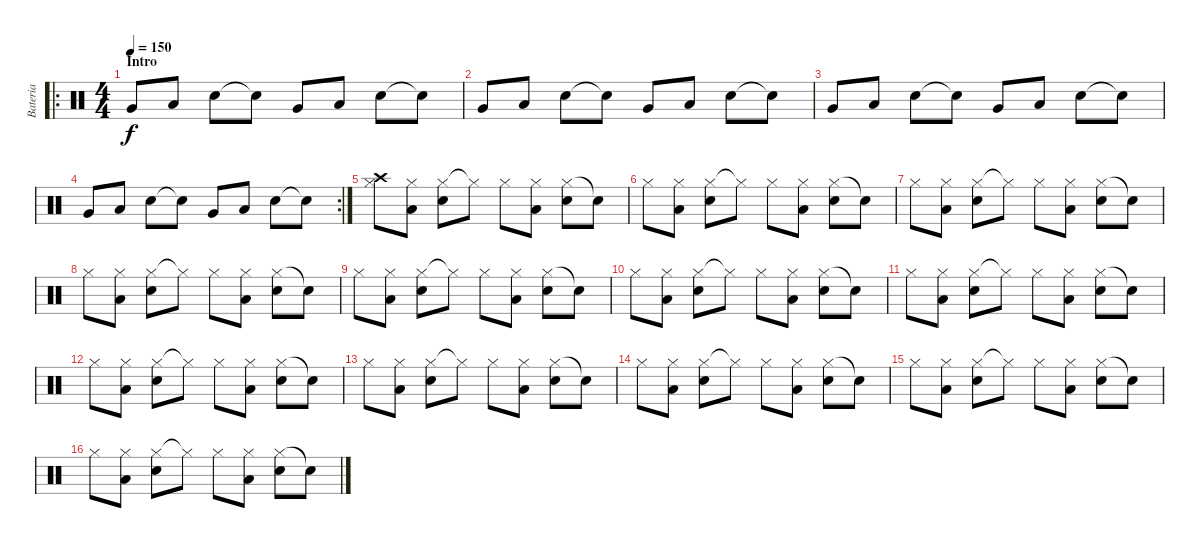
\track ("Bateria" "Bateria") {instrument percussion}
\staff {score}
\articulation defaults
\ro
\ts (4 4)
\section ("" "Intro")
\tempo 150
\clef neutral
\ks c "Very Low Tom (hit)".8{dy f} "Low Floor Tom (hit)".8 "Snare (hit) 2".8 "Snare (hit)"{t}.8 "Very Low Tom (hit)".8 "Low Floor Tom (hit)".8 "Snare (hit) 2".8 "Snare (hit)"{t}.8
|
"Very Low Tom (hit)".8 "Low Floor Tom (hit)".8 "Snare (hit) 2".8 "Snare (hit)"{t}.8 "Very Low Tom (hit)".8 "Low Floor Tom (hit)".8 "Snare (hit) 2".8 "Snare (hit)"{t}.8 |
"Very Low Tom (hit)".8 "Low Floor Tom (hit)".8 "Snare (hit) 2".8 "Snare (hit)"{t}.8 "Very Low Tom (hit)".8 "Low Floor Tom (hit)".8 "Snare (hit) 2".8 "Snare (hit)"{t}.8 |
\rc 2 "Very Low Tom (hit)".8 "Low Floor Tom (hit)".8 "Snare (hit) 2".8 "Snare (hit)"{t}.8 "Very Low Tom (hit)".8 "Low Floor Tom (hit)".8 "Snare (hit) 2".8 "Snare (hit)"{t}.8
|
("Hi-Hat (closed)" "Crash high (hit)").8 ("Low Floor Tom (hit)" "Hi-Hat (closed)").8 ("Hi-Hat (closed)" "Snare (hit) 2").8 "Hi-Hat (closed)"{t}.8 "Hi-Hat (closed)".8 ("Low Floor Tom (hit)" "Hi-Hat (closed)").8 ("Hi-Hat (closed)" "Snare (hit) 2").8 "Snare (hit)"{t}.8 |
"Hi-Hat (closed)".8 ("Low Floor Tom (hit)" "Hi-Hat (closed)").8 ("Hi-Hat (closed)" "Snare (hit) 2").8 "Hi-Hat (closed)"{t}.8 "Hi-Hat (closed)".8 ("Low Floor Tom (hit)" "Hi-Hat (closed)").8 ("Hi-Hat (closed)" "Snare (hit) 2").8 "Snare (hit)"{t}.8 |
"Hi-Hat (closed)".8 ("Low Floor Tom (hit)" "Hi-Hat (closed)").8 ("Hi-Hat (closed)" "Snare (hit) 2").8 "Hi-Hat (closed)"{t}.8 "Hi-Hat (closed)".8 ("Low Floor Tom (hit)" "Hi-Hat (closed)").8 ("Hi-Hat (closed)" "Snare (hit) 2").8 "Snare (hit)"{t}.8 |
"Hi-Hat (closed)".8 ("Low Floor Tom (hit)" "Hi-Hat (closed)").8 ("Hi-Hat (closed)" "Snare (hit) 2").8 "Hi-Hat (closed)"{t}.8 "Hi-Hat (closed)".8 ("Low Floor Tom (hit)" "Hi-Hat (closed)").8 ("Hi-Hat (closed)" "Snare (hit) 2").8 "Snare (hit)"{t}.8 |
"Hi-Hat (closed)".8 ("Low Floor Tom (hit)" "Hi-Hat (closed)").8 ("Hi-Hat (closed)" "Snare (hit) 2").8 "Hi-Hat (closed)"{t}.8 "Hi-Hat (closed)".8 ("Low Floor Tom (hit)" "Hi-Hat (closed)").8 ("Hi-Hat (closed)" "Snare (hit) 2").8 "Snare (hit)"{t}.8 |
"Hi-Hat (closed)".8 ("Low Floor Tom (hit)" "Hi-Hat (closed)").8 ("Hi-Hat (closed)" "Snare (hit) 2").8 "Hi-Hat (closed)"{t}.8 "Hi-Hat (closed)".8 ("Low Floor Tom (hit)" "Hi-Hat (closed)").8 ("Hi-Hat (closed)" "Snare (hit) 2").8 "Snare (hit)"{t}.8 |
"Hi-Hat (closed)".8 ("Low Floor Tom (hit)" "Hi-Hat (closed)").8 ("Hi-Hat (closed)" "Snare (hit) 2").8 "Hi-Hat (closed)"{t}.8 "Hi-Hat (closed)".8 ("Low Floor Tom (hit)" "Hi-Hat (closed)").8 ("Hi-Hat (closed)" "Snare (hit) 2").8 "Snare (hit)"{t}.8 |
"Hi-Hat (closed)".8 ("Low Floor Tom (hit)" "Hi-Hat (closed)").8 ("Hi-Hat (closed)" "Snare (hit) 2").8 "Hi-Hat (closed)"{t}.8 "Hi-Hat (closed)".8 ("Low Floor Tom (hit)" "Hi-Hat (closed)").8 ("Hi-Hat (closed)" "Snare (hit) 2").8 "Snare (hit)"{t}.8 |
"Hi-Hat (closed)".8 ("Low Floor Tom (hit)" "Hi-Hat (closed)").8 ("Hi-Hat (closed)" "Snare (hit) 2").8 "Hi-Hat (closed)"{t}.8 "Hi-Hat (closed)".8 ("Low Floor Tom (hit)" "Hi-Hat (closed)").8 ("Hi-Hat (closed)" "Snare (hit) 2").8 "Snare (hit)"{t}.8 |
"Hi-Hat (closed)".8 ("Low Floor Tom (hit)" "Hi-Hat (closed)").8 ("Hi-Hat (closed)" "Snare (hit) 2").8 "Hi-Hat (closed)"{t}.8 "Hi-Hat (closed)".8 ("Low Floor Tom (hit)" "Hi-Hat (closed)").8 ("Hi-Hat (closed)" "Snare (hit) 2").8 "Snare (hit)"{t}.8 |
"Hi-Hat (closed)".8 ("Low Floor Tom (hit)" "Hi-Hat (closed)").8 ("Hi-Hat (closed)" "Snare (hit) 2").8 "Hi-Hat (closed)"{t}.8 "Hi-Hat (closed)".8 ("Low Floor Tom (hit)" "Hi-Hat (closed)").8 ("Hi-Hat (closed)" "Snare (hit) 2").8 "Snare (hit)"{t}.8 |
"Hi-Hat (closed)".8 ("Low Floor Tom (hit)" "Hi-Hat (closed)").8 ("Hi-Hat (closed)" "Snare (hit) 2").8 "Hi-Hat (closed)"{t}.8 "Hi-Hat (closed)".8 ("Low Floor Tom (hit)" "Hi-Hat (closed)").8 ("Hi-Hat (closed)" "Snare (hit) 2").8 "Snare (hit)"{t}.8
